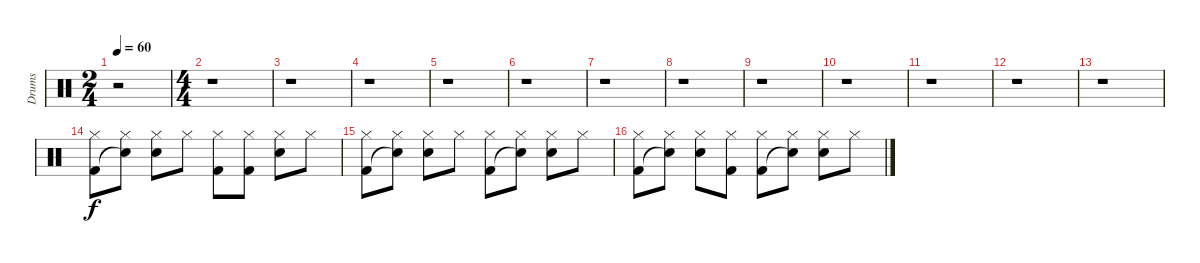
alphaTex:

\track ("Drums" "Drums") {instrument percussion}
\staff {score}
\articulation defaults
\ts (2 4)
\tempo 60
\clef neutral
\ks c
r.2{dy f} |
\ts (4 4)
r.1 |
r.1 |
r.1 |
r.1 |
r.1 |
r.1 |
r.1 |
r.1 |
r.1 |
r.1 |
r.1 |
r.1 |
("Hi-Hat (closed)" "Kick (hit) 2").8 ("Hi-Hat (closed)" "Snare (hit)"{t}).8 ("Hi-Hat (closed)" "Snare (hit) 2").8 "Hi-Hat (closed)".8 ("Hi-Hat (closed)" "Kick (hit) 2").8 ("Hi-Hat (closed)" "Kick (hit) 2").8 ("Hi-Hat (closed)" "Snare (hit) 2").8 "Hi-Hat (closed)".8 |
("Hi-Hat (closed)" "Kick (hit) 2").8 ("Hi-Hat (closed)" "Snare (hit)"{t}).8 ("Hi-Hat (closed)" "Snare (hit) 2").8 "Hi-Hat (closed)".8 ("Hi-Hat (closed)" "Kick (hit) 2").8 ("Hi-Hat (closed)" "Snare (hit)"{t}).8 ("Hi-Hat (closed)" "Snare (hit) 2").8 "Hi-Hat (closed)".8 |
("Hi-Hat (closed)" "Kick (hit) 2").8 ("Hi-Hat (closed)" "Snare (hit)"{t}).8 ("Hi-Hat (closed)" "Snare (hit) 2").8 ("Hi-Hat (closed)" "Kick (hit) 2").8 ("Hi-Hat (closed)" "Kick (hit) 2").8 ("Hi-Hat (closed)" "Snare (hit)"{t}).8 ("Hi-Hat (closed)" "Snare (hit) 2").8 "Hi-Hat (closed)".8
